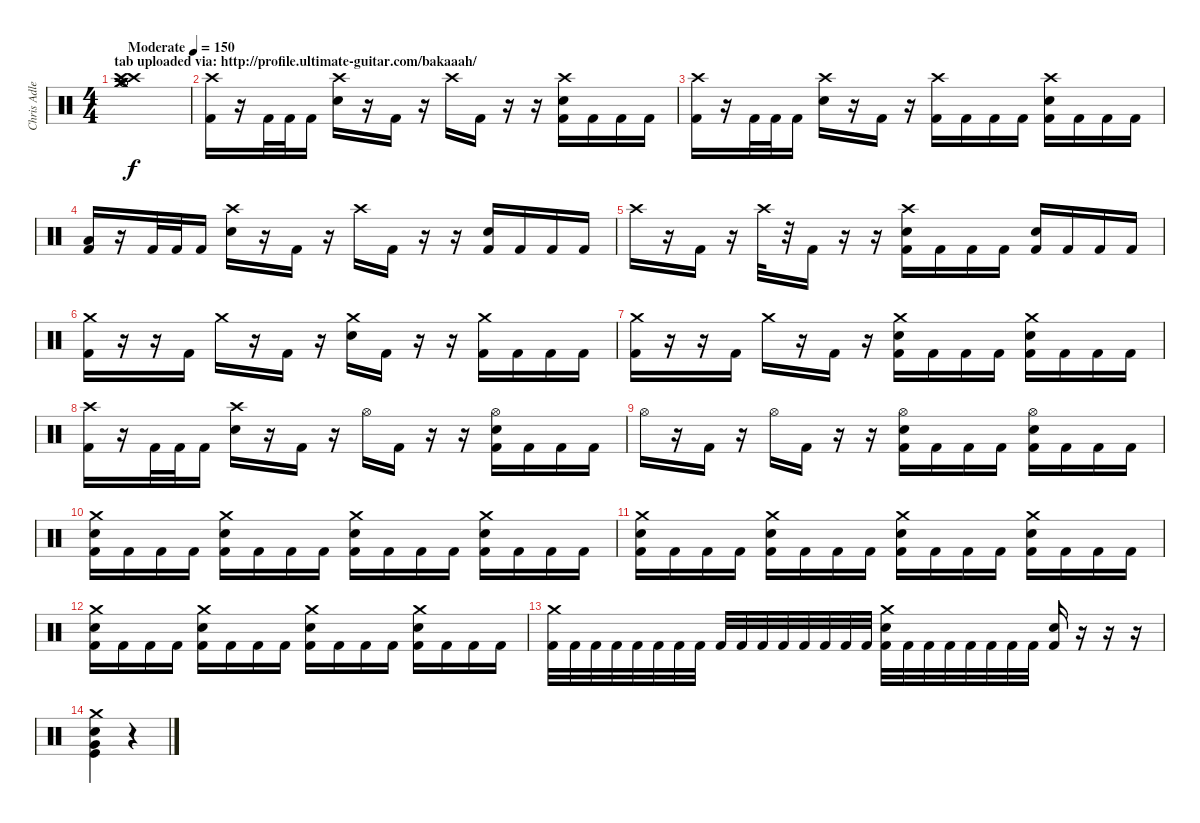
\track ("Chris Adler" "Chris Adle") {instrument percussion}
\staff {score}
\articulation defaults
\ts (4 4)
\section ("" "tab uploaded via: http://profile.ultimate-guitar.com/bakaaah/")
\tempo (150 "Moderate")
\clef neutral
\ks c
("Crash high (hit)" "Crash high (hit)" "Crash medium (hit)" "Crash medium (hit)" "Hi-Hat (open)" "Hi-Hat (open)").1{dy f} |
("Crash high (hit)" "Kick (hit) 2").16 r.16 "Kick (hit) 2".32 "Kick (hit) 2".32 "Kick (hit) 2".16 ("Crash high (hit)" "Electric Snare (hit)").16 r.16 "Kick (hit) 2".16 r.16 "Crash high (hit)".16 "Kick (hit) 2".16 r.16 r.16 ("Crash high (hit)" "Electric Snare (hit)" "Kick (hit) 2").16 "Kick (hit) 2".16 "Kick (hit) 2".16 "Kick (hit) 2".16 |
("Crash high (hit)" "Kick (hit) 2").16 r.16 "Kick (hit) 2".32 "Kick (hit) 2".32 "Kick (hit) 2".16 ("Crash high (hit)" "Electric Snare (hit)").16 r.16 "Kick (hit) 2".16 r.16 ("Crash high (hit)" "Kick (hit) 2").16 "Kick (hit) 2".16 "Kick (hit) 2".16 "Kick (hit) 2".16 ("Crash high (hit)" "Electric Snare (hit)" "Kick (hit) 2").16 "Kick (hit) 2".16 "Kick (hit) 2".16 "Kick (hit) 2".16 |
("Low Floor Tom (hit)" "Kick (hit) 2").16 r.16 "Kick (hit) 2".32 "Kick (hit) 2".32 "Kick (hit) 2".16 ("Crash high (hit)" "Electric Snare (hit)").16 r.16 "Kick (hit) 2".16 r.16 "Crash high (hit)".16 "Kick (hit) 2".16 r.16 r.16 ("Electric Snare (hit)" "Kick (hit) 2").16 "Kick (hit) 2".16 "Kick (hit) 2".16 "Kick (hit) 2".16 |
"Crash high (hit)".16 r.16 "Kick (hit) 2".16 r.16 "Crash high (hit)".32 r.32 "Kick (hit) 2".16 r.16 r.16 ("Crash high (hit)" "Electric Snare (hit)" "Kick (hit) 2").16 "Kick (hit) 2".16 "Kick (hit) 2".16 "Kick (hit) 2".16 ("Electric Snare (hit)" "Kick (hit) 2").16 "Kick (hit) 2".16 "Kick (hit) 2".16 "Kick (hit) 2".16 |
("Crash medium (hit)" "Kick (hit) 2").16 r.16 r.16 "Kick (hit) 2".16 "Crash medium (hit)".16 r.16 "Kick (hit) 2".16 r.16 ("Crash medium (hit)" "Electric Snare (hit)").16 "Kick (hit) 2".16 r.16 r.16 ("Crash medium (hit)" "Kick (hit) 2").16 "Kick (hit) 2".16 "Kick (hit) 2".16 "Kick (hit) 2".16 |
("Crash medium (hit)" "Kick (hit) 2").16 r.16 r.16 "Kick (hit) 2".16 "Crash medium (hit)".16 r.16 "Kick (hit) 2".16 r.16 ("Crash medium (hit)" "Electric Snare (hit)" "Kick (hit) 2").16 "Kick (hit) 2".16 "Kick (hit) 2".16 "Kick (hit) 2".16 ("Crash medium (hit)" "Electric Snare (hit)" "Kick (hit) 2").16 "Kick (hit) 2".16 "Kick (hit) 2".16 "Kick (hit) 2".16 |
("Crash high (hit)" "Kick (hit) 2").16 r.16 "Kick (hit) 2".32 "Kick (hit) 2".32 "Kick (hit) 2".16 ("Crash high (hit)" "Electric Snare (hit)").16 r.16 "Kick (hit) 2".16 r.16 "Hi-Hat (open)".16 "Kick (hit) 2".16 r.16 r.16 ("Hi-Hat (open)" "Electric Snare (hit)" "Kick (hit) 2").16 "Kick (hit) 2".16 "Kick (hit) 2".16 "Kick (hit) 2".16 |
"Hi-Hat (open)".16 r.16 "Kick (hit) 2".16 r.16 "Hi-Hat (open)".16 "Kick (hit) 2".16 r.16 r.16 ("Hi-Hat (open)" "Electric Snare (hit)" "Kick (hit) 2").16 "Kick (hit) 2".16 "Kick (hit) 2".16 "Kick (hit) 2".16 ("Hi-Hat (open)" "Electric Snare (hit)" "Kick (hit) 2").16 "Kick (hit) 2".16 "Kick (hit) 2".16 "Kick (hit) 2".16 |
("Crash medium (hit)" "Electric Snare (hit)" "Kick (hit) 2").16 "Kick (hit) 2".16 "Kick (hit) 2".16 "Kick (hit) 2".16 ("Crash medium (hit)" "Electric Snare (hit)" "Kick (hit) 2").16 "Kick (hit) 2".16 "Kick (hit) 2".16 "Kick (hit) 2".16 ("Crash medium (hit)" "Electric Snare (hit)" "Kick (hit) 2").16 "Kick (hit) 2".16 "Kick (hit) 2".16 "Kick (hit) 2".16 ("Crash medium (hit)" "Electric Snare (hit)" "Kick (hit) 2").16 "Kick (hit) 2".16 "Kick (hit) 2".16 "Kick (hit) 2".16 |
("Crash medium (hit)" "Electric Snare (hit)" "Kick (hit) 2").16 "Kick (hit) 2".16 "Kick (hit) 2".16 "Kick (hit) 2".16 ("Crash medium (hit)" "Electric Snare (hit)" "Kick (hit) 2").16 "Kick (hit) 2".16 "Kick (hit) 2".16 "Kick (hit) 2".16 ("Crash medium (hit)" "Electric Snare (hit)" "Kick (hit) 2").16 "Kick (hit) 2".16 "Kick (hit) 2".16 "Kick (hit) 2".16 ("Crash medium (hit)" "Electric Snare (hit)" "Kick (hit) 2").16 "Kick (hit) 2".16 "Kick (hit) 2".16 "Kick (hit) 2".16 |
("Crash medium (hit)" "Electric Snare (hit)" "Kick (hit) 2").16 "Kick (hit) 2".16 "Kick (hit) 2".16 "Kick (hit) 2".16 ("Crash medium (hit)" "Electric Snare (hit)" "Kick (hit) 2").16 "Kick (hit) 2".16 "Kick (hit) 2".16 "Kick (hit) 2".16 ("Crash medium (hit)" "Electric Snare (hit)" "Kick (hit) 2").16 "Kick (hit) 2".16 "Kick (hit) 2".16 "Kick (hit) 2".16 ("Crash medium (hit)" "Electric Snare (hit)" "Kick (hit) 2").16 "Kick (hit) 2".16 "Kick (hit) 2".16 "Kick (hit) 2".16 |
("Crash medium (hit)" "Kick (hit) 2").32 "Kick (hit) 2".32 "Kick (hit) 2".32 "Kick (hit) 2".32 "Kick (hit) 2".32 "Kick (hit) 2".32 "Kick (hit) 2".32 "Kick (hit) 2".32 "Kick (hit) 2".32 "Kick (hit) 2".32 "Kick (hit) 2".32 "Kick (hit) 2".32 "Kick (hit) 2".32 "Kick (hit) 2".32 "Kick (hit) 2".32 "Kick (hit) 2".32 ("Crash medium (hit)" "Electric Snare (hit)" "Kick (hit) 2").32 "Kick (hit) 2".32 "Kick (hit) 2".32 "Kick (hit) 2".32 "Kick (hit) 2".32 "Kick (hit) 2".32 "Kick (hit) 2".32 "Kick (hit) 2".32 ("Electric Snare (hit)" "Kick (hit) 2").16 r.16 r.16 r.16 |
("Electric Snare (hit)" "Kick (hit)" "Very Low Tom (hit)" "Crash medium (hit)").4 r.4
